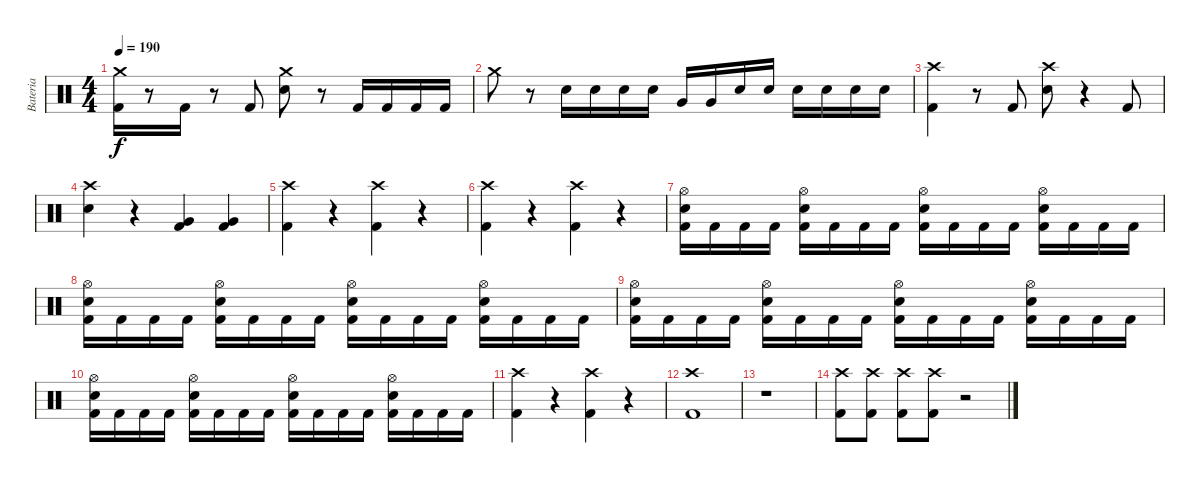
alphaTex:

\track ("Bateria" "Bateria") {instrument percussion}
\staff {score}
\articulation defaults
\ts (4 4)
\tempo 190
\clef neutral
\ks c
("Crash medium (hit)" "Kick (hit) 2").16{dy f} r.8 "Kick (hit) 2".16 r.8 "Kick (hit) 2".8 ("Crash medium (hit)" "Electric Snare (hit)").8 r.8 "Kick (hit) 2".16 "Kick (hit) 2".16 "Kick (hit) 2".16 "Kick (hit) 2".16 |
"Crash medium (hit)".8 r.8 "Electric Snare (hit)".16 "Electric Snare (hit)".16 "Electric Snare (hit)".16 "Electric Snare (hit)".16 "Very Low Tom (hit)".16 "Very Low Tom (hit)".16 "Electric Snare (hit)".16 "Electric Snare (hit)".16 "Electric Snare (hit)".16 "Electric Snare (hit)".16 "Electric Snare (hit)".16 "Electric Snare (hit)".16 |
("Crash high (hit)" "Kick (hit) 2").4 r.8 "Kick (hit) 2".8 ("Crash high (hit)" "Electric Snare (hit)").8 r.4 "Kick (hit) 2".8 |
("Crash high (hit)" "Electric Snare (hit)").4 r.4 ("Very Low Tom (hit)" "Kick (hit) 2").4 ("Very Low Tom (hit)" "Kick (hit) 2").4 |
("Crash high (hit)" "Kick (hit) 2").4 r.4 ("Crash high (hit)" "Kick (hit) 2").4 r.4 |
("Crash high (hit)" "Kick (hit) 2").4 r.4 ("Crash high (hit)" "Kick (hit) 2").4 r.4 |
("Hi-Hat (open)" "Electric Snare (hit)" "Kick (hit) 2").16 "Kick (hit) 2".16 "Kick (hit) 2".16 "Kick (hit) 2".16 ("Hi-Hat (open)" "Electric Snare (hit)" "Kick (hit) 2").16 "Kick (hit) 2".16 "Kick (hit) 2".16 "Kick (hit) 2".16 ("Hi-Hat (open)" "Electric Snare (hit)" "Kick (hit) 2").16 "Kick (hit) 2".16 "Kick (hit) 2".16 "Kick (hit) 2".16 ("Hi-Hat (open)" "Electric Snare (hit)" "Kick (hit) 2").16 "Kick (hit) 2".16 "Kick (hit) 2".16 "Kick (hit) 2".16 |
("Hi-Hat (open)" "Electric Snare (hit)" "Kick (hit) 2").16 "Kick (hit) 2".16 "Kick (hit) 2".16 "Kick (hit) 2".16 ("Hi-Hat (open)" "Electric Snare (hit)" "Kick (hit) 2").16 "Kick (hit) 2".16 "Kick (hit) 2".16 "Kick (hit) 2".16 ("Hi-Hat (open)" "Electric Snare (hit)" "Kick (hit) 2").16 "Kick (hit) 2".16 "Kick (hit) 2".16 "Kick (hit) 2".16 ("Hi-Hat (open)" "Electric Snare (hit)" "Kick (hit) 2").16 "Kick (hit) 2".16 "Kick (hit) 2".16 "Kick (hit) 2".16 |
("Hi-Hat (open)" "Electric Snare (hit)" "Kick (hit) 2").16 "Kick (hit) 2".16 "Kick (hit) 2".16 "Kick (hit) 2".16 ("Hi-Hat (open)" "Electric Snare (hit)" "Kick (hit) 2").16 "Kick (hit) 2".16 "Kick (hit) 2".16 "Kick (hit) 2".16 ("Hi-Hat (open)" "Electric Snare (hit)" "Kick (hit) 2").16 "Kick (hit) 2".16 "Kick (hit) 2".16 "Kick (hit) 2".16 ("Hi-Hat (open)" "Electric Snare (hit)" "Kick (hit) 2").16 "Kick (hit) 2".16 "Kick (hit) 2".16 "Kick (hit) 2".16 |
("Hi-Hat (open)" "Electric Snare (hit)" "Kick (hit) 2").16 "Kick (hit) 2".16 "Kick (hit) 2".16 "Kick (hit) 2".16 ("Hi-Hat (open)" "Electric Snare (hit)" "Kick (hit) 2").16 "Kick (hit) 2".16 "Kick (hit) 2".16 "Kick (hit) 2".16 ("Hi-Hat (open)" "Electric Snare (hit)" "Kick (hit) 2").16 "Kick (hit) 2".16 "Kick (hit) 2".16 "Kick (hit) 2".16 ("Hi-Hat (open)" "Electric Snare (hit)" "Kick (hit) 2").16 "Kick (hit) 2".16 "Kick (hit) 2".16 "Kick (hit) 2".16 |
("Crash high (hit)" "Kick (hit) 2").4 r.4 ("Crash high (hit)" "Kick (hit) 2").4 r.4 |
("Crash high (hit)" "Kick (hit) 2").1 |
r.1 |
("Crash high (hit)" "Kick (hit) 2").8 ("Crash high (hit)" "Kick (hit) 2").8 ("Crash high (hit)" "Kick (hit) 2").8 ("Crash high (hit)" "Kick (hit) 2").8 r.2
